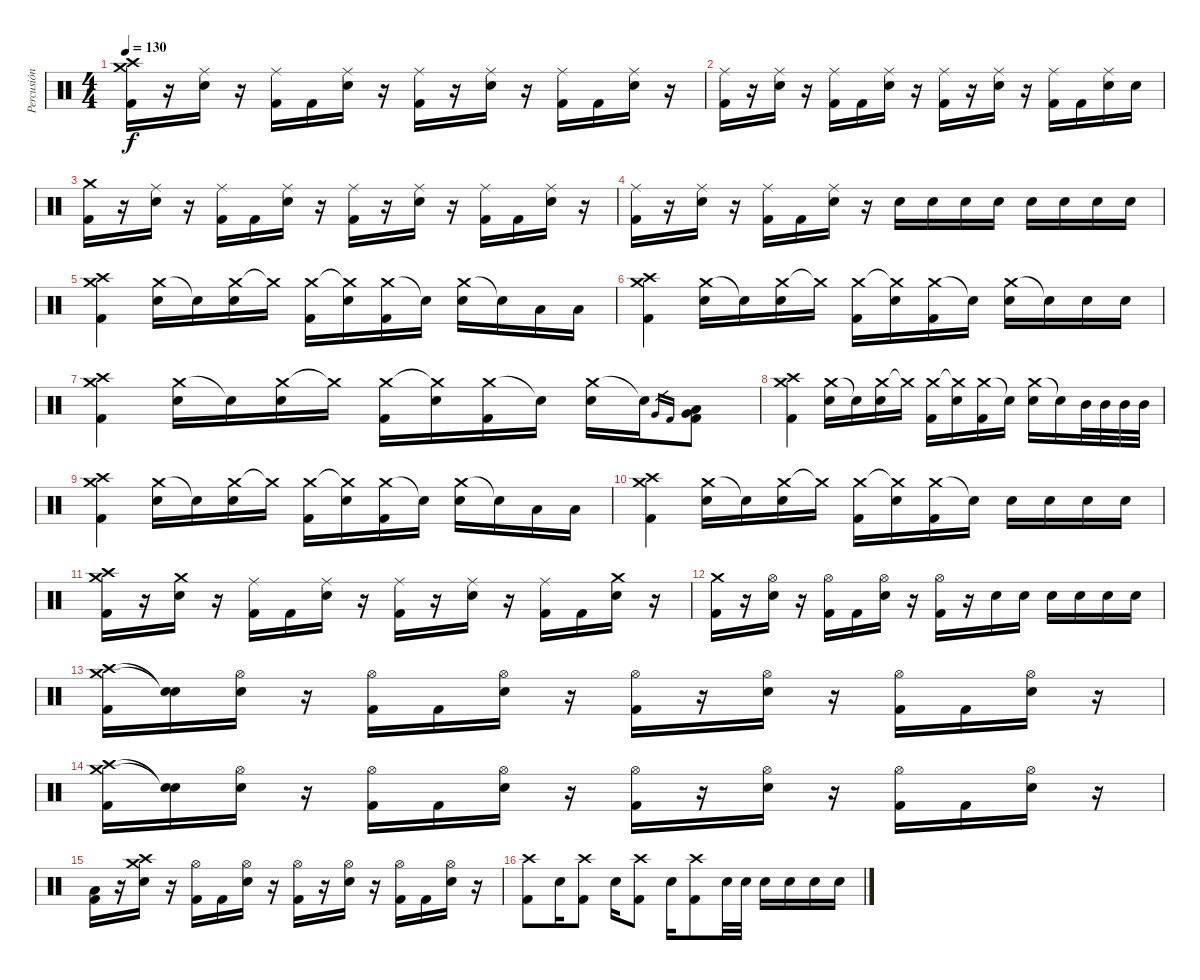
\track ("Percusión" "Percusión") {instrument percussion}
\staff {score}
\articulation defaults
\ts (4 4)
\tempo 130
\clef neutral
\ks c
("Crash high (hit)" "Crash medium (hit)" "Kick (hit) 2").16{dy f} r.16 ("Ride (middle)" "Electric Snare (hit)").16 r.16 ("Ride (middle)" "Kick (hit) 2").16 "Kick (hit) 2".16 ("Ride (middle)" "Electric Snare (hit)").16 r.16 ("Ride (middle)" "Kick (hit) 2").16 r.16 ("Ride (middle)" "Electric Snare (hit)").16 r.16 ("Ride (middle)" "Kick (hit) 2").16 "Kick (hit) 2".16 ("Ride (middle)" "Electric Snare (hit)").16 r.16 |
("Ride (middle)" "Kick (hit) 2").16 r.16 ("Ride (middle)" "Electric Snare (hit)").16 r.16 ("Ride (middle)" "Kick (hit) 2").16 "Kick (hit) 2".16 ("Ride (middle)" "Electric Snare (hit)").16 r.16 ("Ride (middle)" "Kick (hit) 2").16 r.16 ("Ride (middle)" "Electric Snare (hit)").16 r.16 ("Ride (middle)" "Kick (hit) 2").16 "Kick (hit) 2".16 ("Ride (middle)" "Electric Snare (hit)").16 "Electric Snare (hit)".16 |
("Crash medium (hit)" "Kick (hit) 2").16 r.16 ("Ride (middle)" "Electric Snare (hit)").16 r.16 ("Ride (middle)" "Kick (hit) 2").16 "Kick (hit) 2".16 ("Ride (middle)" "Electric Snare (hit)").16 r.16 ("Ride (middle)" "Kick (hit) 2").16 r.16 ("Ride (middle)" "Electric Snare (hit)").16 r.16 ("Ride (middle)" "Kick (hit) 2").16 "Kick (hit) 2".16 ("Ride (middle)" "Electric Snare (hit)").16 r.16 |
("Ride (middle)" "Kick (hit) 2").16 r.16 ("Ride (middle)" "Electric Snare (hit)").16 r.16 ("Ride (middle)" "Kick (hit) 2").16 "Kick (hit) 2".16 ("Ride (middle)" "Electric Snare (hit)").16 r.16 "Electric Snare (hit)".16 "Electric Snare (hit)".16 "Electric Snare (hit)".16 "Electric Snare (hit)".16 "Electric Snare (hit)".16 "Electric Snare (hit)".16 "Electric Snare (hit)".16 "Electric Snare (hit)".16 |
("Crash medium (hit)" "Crash high (hit)" "Kick (hit) 2").4 ("Crash medium (hit)" "Electric Snare (hit)").16 "Snare (hit)"{t}.16 ("Crash medium (hit)" "Electric Snare (hit)").16 "Crash medium (hit)"{t}.16 ("Crash medium (hit)" "Kick (hit) 2").16 ("Crash medium (hit)"{t} "Electric Snare (hit)").16 ("Crash medium (hit)" "Kick (hit) 2").16 "Snare (hit)"{t}.16 ("Crash medium (hit)" "Electric Snare (hit)").16 "Snare (hit)"{t}.16 "Low Tom (hit)".16 "Low Tom (hit)".16 |
("Crash medium (hit)" "Crash high (hit)" "Kick (hit) 2").4 ("Crash medium (hit)" "Electric Snare (hit)").16 "Snare (hit)"{t}.16 ("Crash medium (hit)" "Electric Snare (hit)").16 "Crash medium (hit)"{t}.16 ("Crash medium (hit)" "Kick (hit) 2").16 ("Crash medium (hit)"{t} "Electric Snare (hit)").16 ("Crash medium (hit)" "Kick (hit) 2").16 "Snare (hit)"{t}.16 ("Crash medium (hit)" "Electric Snare (hit)").16 "Snare (hit)"{t}.16 "Electric Snare (hit)".16 "Electric Snare (hit)".16 |
("Crash medium (hit)" "Crash high (hit)" "Kick (hit) 2").4 ("Crash medium (hit)" "Electric Snare (hit)").16 "Snare (hit)"{t}.16 ("Crash medium (hit)" "Electric Snare (hit)").16 "Crash medium (hit)"{t}.16 ("Crash medium (hit)" "Kick (hit) 2").16 ("Crash medium (hit)"{t} "Electric Snare (hit)").16 ("Crash medium (hit)" "Kick (hit) 2").16 "Snare (hit)"{t}.16 ("Crash medium (hit)" "Electric Snare (hit)").16 "Snare (hit)"{t}.16 "Very Low Tom (hit)".16{gr} "Kick (hit) 2".16{gr} ("Low Tom (hit)" "Very Low Tom (hit)" "Kick (hit) 2").8 |
("Crash medium (hit)" "Crash high (hit)" "Kick (hit) 2").4 ("Crash medium (hit)" "Electric Snare (hit)").16 "Snare (hit)"{t}.16 ("Crash medium (hit)" "Electric Snare (hit)").16 "Crash medium (hit)"{t}.16 ("Crash medium (hit)" "Kick (hit) 2").16 ("Crash medium (hit)"{t} "Electric Snare (hit)").16 ("Crash medium (hit)" "Kick (hit) 2").16 "Snare (hit)"{t}.16 ("Crash medium (hit)" "Electric Snare (hit)").16 "Snare (hit)"{t}.16 "Mid Tom (hit)".32 "Mid Tom (hit)".32 "Mid Tom (hit)".32 "Mid Tom (hit)".32 |
("Crash medium (hit)" "Crash high (hit)" "Kick (hit) 2").4 ("Crash medium (hit)" "Electric Snare (hit)").16 "Snare (hit)"{t}.16 ("Crash medium (hit)" "Electric Snare (hit)").16 "Crash medium (hit)"{t}.16 ("Crash medium (hit)" "Kick (hit) 2").16 ("Crash medium (hit)"{t} "Electric Snare (hit)").16 ("Crash medium (hit)" "Kick (hit) 2").16 "Snare (hit)"{t}.16 ("Crash medium (hit)" "Electric Snare (hit)").16 "Snare (hit)"{t}.16 "Low Tom (hit)".16 "Low Tom (hit)".16 |
("Crash medium (hit)" "Crash high (hit)" "Kick (hit) 2").4 ("Crash medium (hit)" "Electric Snare (hit)").16 "Snare (hit)"{t}.16 ("Crash medium (hit)" "Electric Snare (hit)").16 "Crash medium (hit)"{t}.16 ("Crash medium (hit)" "Kick (hit) 2").16 ("Crash medium (hit)"{t} "Electric Snare (hit)").16 ("Crash medium (hit)" "Kick (hit) 2").16 "Snare (hit)"{t}.16 "Electric Snare (hit)".16 "Electric Snare (hit)".16 "Electric Snare (hit)".16 "Electric Snare (hit)".16 |
("Crash medium (hit)" "Crash high (hit)" "Kick (hit) 2").16 r.16 ("Crash medium (hit)" "Electric Snare (hit)").16 r.16 ("Ride (middle)" "Kick (hit) 2").16 "Kick (hit) 2".16 ("Ride (middle)" "Electric Snare (hit)").16 r.16 ("Ride (middle)" "Kick (hit) 2").16 r.16 ("Ride (middle)" "Electric Snare (hit)").16 r.16 ("Ride (middle)" "Kick (hit) 2").16 "Kick (hit) 2".16 ("Crash medium (hit)" "Electric Snare (hit)").16 r.16 |
("Crash medium (hit)" "Kick (hit) 2").16 r.16 ("Hi-Hat (open)" "Electric Snare (hit)").16 r.16 ("Hi-Hat (open)" "Kick (hit) 2").16 "Kick (hit) 2".16 ("Hi-Hat (open)" "Electric Snare (hit)").16 r.16 ("Hi-Hat (open)" "Kick (hit) 2").16 r.16 "Electric Snare (hit)".16 "Electric Snare (hit)".16 "Electric Snare (hit)".16 "Electric Snare (hit)".16 "Electric Snare (hit)".16 "Electric Snare (hit)".16 |
("Crash high (hit)" "Crash medium (hit)" "Kick (hit) 2").16 ("Snare (hit)"{t} "Snare (hit)"{t}).16 ("Hi-Hat (open)" "Electric Snare (hit)").16 r.16 ("Hi-Hat (open)" "Kick (hit) 2").16 "Kick (hit) 2".16 ("Hi-Hat (open)" "Electric Snare (hit)").16 r.16 ("Hi-Hat (open)" "Kick (hit) 2").16 r.16 ("Hi-Hat (open)" "Electric Snare (hit)").16 r.16 ("Hi-Hat (open)" "Kick (hit) 2").16 "Kick (hit) 2".16 ("Hi-Hat (open)" "Electric Snare (hit)").16 r.16 |
("Crash high (hit)" "Crash medium (hit)" "Kick (hit) 2").16 ("Snare (hit)"{t} "Snare (hit)"{t}).16 ("Hi-Hat (open)" "Electric Snare (hit)").16 r.16 ("Hi-Hat (open)" "Kick (hit) 2").16 "Kick (hit) 2".16 ("Hi-Hat (open)" "Electric Snare (hit)").16 r.16 ("Hi-Hat (open)" "Kick (hit) 2").16 r.16 ("Hi-Hat (open)" "Electric Snare (hit)").16 r.16 ("Hi-Hat (open)" "Kick (hit) 2").16 "Kick (hit) 2".16 ("Hi-Hat (open)" "Electric Snare (hit)").16 r.16 |
("Low Tom (hit)" "Kick (hit) 2").16 r.16 ("Crash medium (hit)" "Crash high (hit)" "Electric Snare (hit)").16 r.16 ("Hi-Hat (open)" "Kick (hit) 2").16 "Kick (hit) 2".16 ("Hi-Hat (open)" "Electric Snare (hit)").16 r.16 ("Hi-Hat (open)" "Kick (hit) 2").16 r.16 ("Hi-Hat (open)" "Electric Snare (hit)").16 r.16 ("Hi-Hat (open)" "Kick (hit) 2").16 "Kick (hit) 2".16 ("Hi-Hat (open)" "Electric Snare (hit)").16 r.16 |
("Crash high (hit)" "Kick (hit) 2").8 "Electric Snare (hit)".16 ("Crash high (hit)" "Kick (hit) 2").8 "Electric Snare (hit)".16 ("Crash high (hit)" "Kick (hit) 2").8 "Electric Snare (hit)".16 ("Crash high (hit)" "Kick (hit) 2").8 "Electric Snare (hit)".32 "Electric Snare (hit)".32 "Electric Snare (hit)".16 "Electric Snare (hit)".16 "Electric Snare (hit)".16 "Electric Snare (hit)".16
